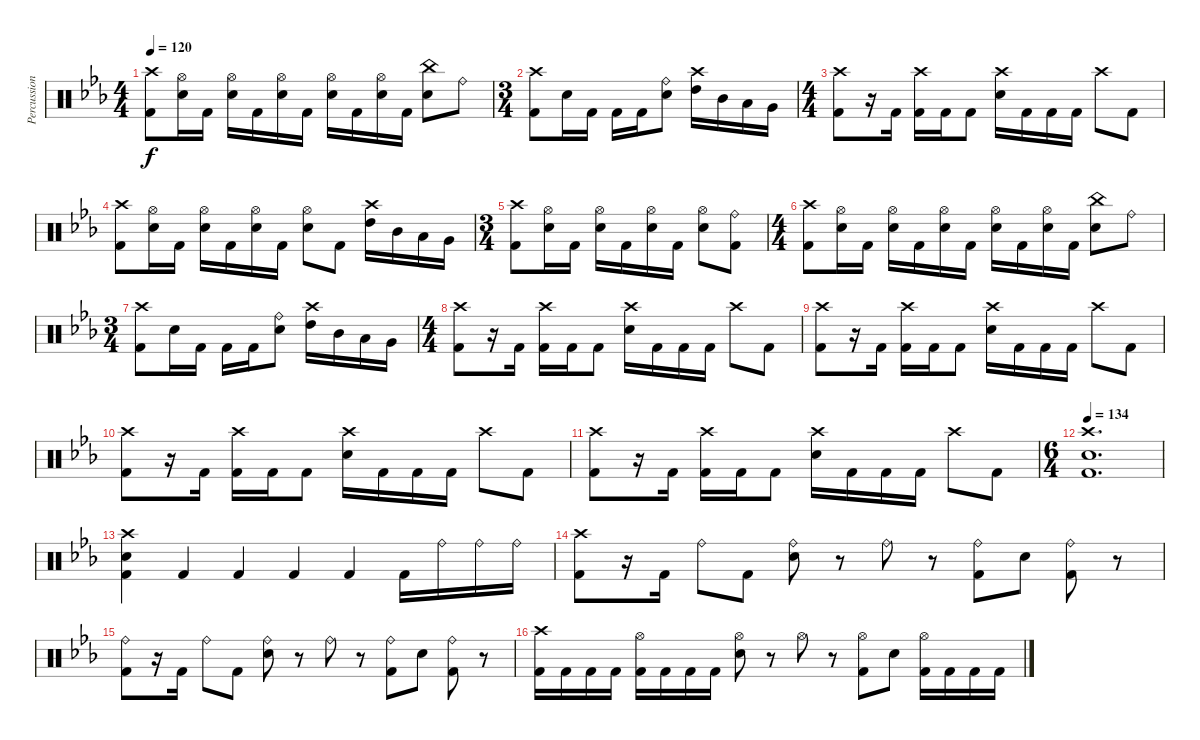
\track ("Percussion" "Percussion") {instrument percussion}
\staff {score}
\articulation defaults
\ts (4 4)
\tempo 120
\clef neutral
\ks eb
("Crash high (hit)" "Kick (hit) 2").8{dy f} ("Hi-Hat (open)" "Electric Snare (hit)").16 "Kick (hit) 2".16 ("Hi-Hat (open)" "Electric Snare (hit)").16 "Kick (hit) 2".16 ("Hi-Hat (open)" "Electric Snare (hit)").16 "Kick (hit) 2".16 ("Hi-Hat (open)" "Electric Snare (hit)").16 "Kick (hit) 2".16 ("Hi-Hat (open)" "Electric Snare (hit)").16 "Kick (hit) 2".16 ("China (hit)" "Electric Snare (hit)").8 "Ride (bell)".8 |
\ts (3 4)
("Crash high (hit)" "Kick (hit) 2").8 "Electric Snare (hit)".16 "Kick (hit) 2".16 "Kick (hit) 2".16 "Kick (hit) 2".16 ("Ride (bell)" "Electric Snare (hit)").8 ("Crash high (hit)" "High Tom (hit)").16 "Mid Tom (hit)".16 "Low Tom (hit)".16 "Very Low Tom (hit)".16 |
\ts (4 4)
("Crash high (hit)" "Kick (hit) 2").8 r.16 "Kick (hit) 2".16 ("Crash high (hit)" "Kick (hit) 2").16 "Kick (hit) 2".16 "Kick (hit) 2".8 ("Crash high (hit)" "Electric Snare (hit)").16 "Kick (hit) 2".16 "Kick (hit) 2".16 "Kick (hit) 2".16 "Crash high (hit)".8 "Kick (hit) 2".8 |
("Crash high (hit)" "Kick (hit) 2").8 ("Hi-Hat (open)" "Electric Snare (hit)").16 "Kick (hit) 2".16 ("Hi-Hat (open)" "Electric Snare (hit)").16 "Kick (hit) 2".16 ("Hi-Hat (open)" "Electric Snare (hit)").16 "Kick (hit) 2".16 ("Hi-Hat (open)" "Electric Snare (hit)").8 "Kick (hit) 2".8 ("Crash high (hit)" "High Tom (hit)").16 "Mid Tom (hit)".16 "Low Tom (hit)".16 "Very Low Tom (hit)".16 |
\ts (3 4)
("Crash high (hit)" "Kick (hit) 2").8 ("Hi-Hat (open)" "Electric Snare (hit)").16 "Kick (hit) 2".16 ("Hi-Hat (open)" "Electric Snare (hit)").16 "Kick (hit) 2".16 ("Hi-Hat (open)" "Electric Snare (hit)").16 "Kick (hit) 2".16 ("Hi-Hat (open)" "Electric Snare (hit)").8 ("Ride (bell)" "Kick (hit) 2").8 |
\ts (4 4)
("Crash high (hit)" "Kick (hit) 2").8 ("Hi-Hat (open)" "Electric Snare (hit)").16 "Kick (hit) 2".16 ("Hi-Hat (open)" "Electric Snare (hit)").16 "Kick (hit) 2".16 ("Hi-Hat (open)" "Electric Snare (hit)").16 "Kick (hit) 2".16 ("Hi-Hat (open)" "Electric Snare (hit)").16 "Kick (hit) 2".16 ("Hi-Hat (open)" "Electric Snare (hit)").16 "Kick (hit) 2".16 ("China (hit)" "Electric Snare (hit)").8 "Ride (bell)".8 |
\ts (3 4)
("Crash high (hit)" "Kick (hit) 2").8 "Electric Snare (hit)".16 "Kick (hit) 2".16 "Kick (hit) 2".16 "Kick (hit) 2".16 ("Ride (bell)" "Electric Snare (hit)").8 ("Crash high (hit)" "High Tom (hit)").16 "Mid Tom (hit)".16 "Low Tom (hit)".16 "Very Low Tom (hit)".16 |
\ts (4 4)
("Crash high (hit)" "Kick (hit) 2").8 r.16 "Kick (hit) 2".16 ("Crash high (hit)" "Kick (hit) 2").16 "Kick (hit) 2".16 "Kick (hit) 2".8 ("Crash high (hit)" "Electric Snare (hit)").16 "Kick (hit) 2".16 "Kick (hit) 2".16 "Kick (hit) 2".16 "Crash high (hit)".8 "Kick (hit) 2".8 |
("Crash high (hit)" "Kick (hit) 2").8 r.16 "Kick (hit) 2".16 ("Crash high (hit)" "Kick (hit) 2").16 "Kick (hit) 2".16 "Kick (hit) 2".8 ("Crash high (hit)" "Electric Snare (hit)").16 "Kick (hit) 2".16 "Kick (hit) 2".16 "Kick (hit) 2".16 "Crash high (hit)".8 "Kick (hit) 2".8 |
("Crash high (hit)" "Kick (hit) 2").8 r.16 "Kick (hit) 2".16 ("Crash high (hit)" "Kick (hit) 2").16 "Kick (hit) 2".16 "Kick (hit) 2".8 ("Crash high (hit)" "Electric Snare (hit)").16 "Kick (hit) 2".16 "Kick (hit) 2".16 "Kick (hit) 2".16 "Crash high (hit)".8 "Kick (hit) 2".8 |
("Crash high (hit)" "Kick (hit) 2").8 r.16 "Kick (hit) 2".16 ("Crash high (hit)" "Kick (hit) 2").16 "Kick (hit) 2".16 "Kick (hit) 2".8 ("Crash high (hit)" "Electric Snare (hit)").16 "Kick (hit) 2".16 "Kick (hit) 2".16 "Kick (hit) 2".16 "Crash high (hit)".8 "Kick (hit) 2".8 |
\ts (6 4)
\tempo 134
("Crash high (hit)" "Electric Snare (hit)" "Kick (hit) 2").1{d} |
("Crash high (hit)" "Electric Snare (hit)" "Kick (hit) 2").4 "Kick (hit) 2".4 "Kick (hit) 2".4 "Kick (hit) 2".4 "Kick (hit) 2".4 "Kick (hit) 2".16 "Ride (bell)".16 "Ride (bell)".16 "Ride (bell)".16 |
("Crash high (hit)" "Kick (hit) 2").8 r.16 "Kick (hit) 2".16 "Ride (bell)".8 "Kick (hit) 2".8 ("Ride (bell)" "Electric Snare (hit)").8 r.8 "Ride (bell)".8 r.8 ("Ride (bell)" "Kick (hit) 2").8 "Electric Snare (hit)".8 ("Ride (bell)" "Kick (hit) 2").8 r.8 |
("Ride (bell)" "Kick (hit) 2").8 r.16 "Kick (hit) 2".16 "Ride (bell)".8 "Kick (hit) 2".8 ("Ride (bell)" "Electric Snare (hit)").8 r.8 "Ride (bell)".8 r.8 ("Ride (bell)" "Kick (hit) 2").8 "Electric Snare (hit)".8 ("Ride (bell)" "Kick (hit) 2").8 r.8 |
("Crash high (hit)" "Kick (hit) 2").16 "Kick (hit) 2".16 "Kick (hit) 2".16 "Kick (hit) 2".16 ("Hi-Hat (open)" "Kick (hit) 2").16 "Kick (hit) 2".16 "Kick (hit) 2".16 "Kick (hit) 2".16 ("Hi-Hat (open)" "Electric Snare (hit)").8 r.8 "Hi-Hat (open)".8 r.8 ("Hi-Hat (open)" "Kick (hit) 2").8 "Electric Snare (hit)".8 ("Hi-Hat (open)" "Kick (hit) 2").16 "Kick (hit) 2".16 "Kick (hit) 2".16 "Kick (hit) 2".16
